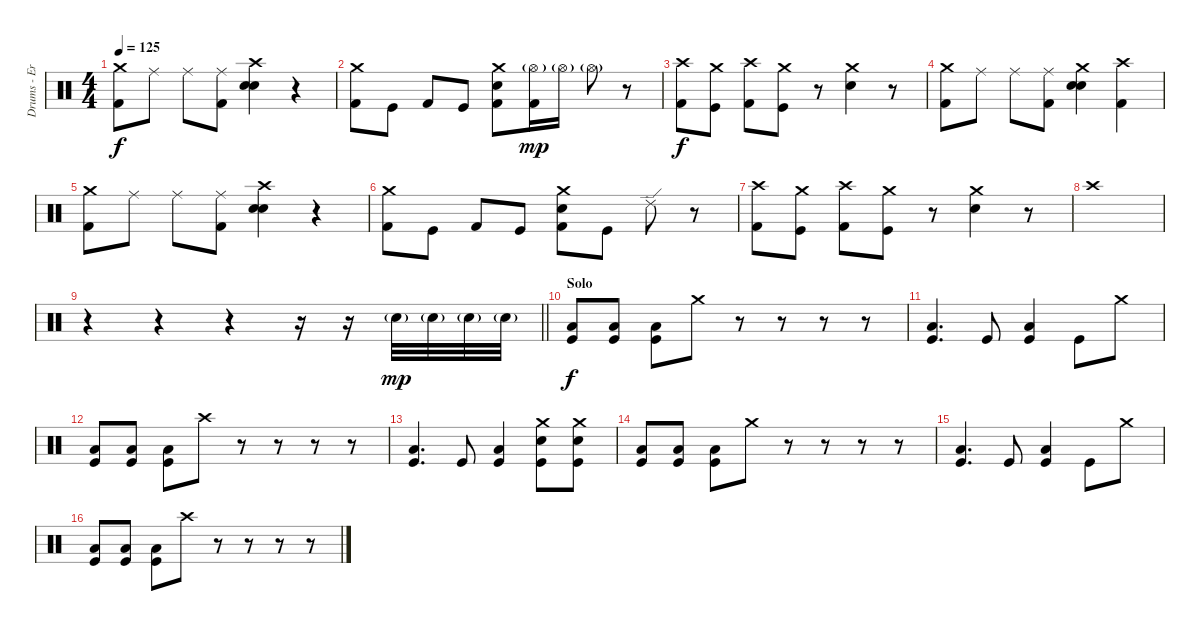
\track ("Drums - Eric Young" "Drums - Er") {instrument percussion}
\staff {score}
\articulation defaults
\ts (4 4)
\tempo 125
\clef neutral
\ks c
("Crash medium (hit)" "Kick (hit) 2").8{dy f} "Ride (middle)".8 "Ride (middle)".8 ("Ride (middle)" "Kick (hit) 2").8 ("Crash high (hit)" "Electric Snare (hit)" "Snare (hit) 2").4 r.4 |
("Crash medium (hit)" "Kick (hit) 2").8 "Kick (hit)".8 "Kick (hit) 2".8 "Kick (hit)".8 ("Crash medium (hit)" "Electric Snare (hit)" "Kick (hit) 2").8 ("Hi-Hat (open)"{g} "Kick (hit) 2").16{dy mp} "Hi-Hat (open)"{g}.16 "Hi-Hat (open)"{g}.8 r.8 |
("Crash high (hit)" "Kick (hit) 2").8{dy f} ("Crash medium (hit)" "Kick (hit)").8 ("Crash high (hit)" "Kick (hit) 2").8 ("Crash medium (hit)" "Kick (hit)").8 r.8 ("Crash medium (hit)" "Electric Snare (hit)").4 r.8 |
("Crash medium (hit)" "Kick (hit) 2").8 "Ride (middle)".8 "Ride (middle)".8 ("Ride (middle)" "Kick (hit) 2").8 ("Crash medium (hit)" "Snare (hit) 2" "Electric Snare (hit)").4 ("Crash high (hit)" "Kick (hit) 2").4 |
("Crash medium (hit)" "Kick (hit) 2").8 "Ride (middle)".8 "Ride (middle)".8 ("Ride (middle)" "Kick (hit) 2").8 ("Crash high (hit)" "Electric Snare (hit)" "Snare (hit) 2").4 r.4 |
("Crash medium (hit)" "Kick (hit) 2").8 "Kick (hit)".8 "Kick (hit) 2".8 "Kick (hit)".8 ("Crash medium (hit)" "Electric Snare (hit)" "Kick (hit) 2").8 "Kick (hit)".8 "Ride (edge) 2".8 r.8 |
("Crash high (hit)" "Kick (hit) 2").8 ("Crash medium (hit)" "Kick (hit)").8 ("Crash high (hit)" "Kick (hit) 2").8 ("Crash medium (hit)" "Kick (hit)").8 r.8 ("Crash medium (hit)" "Electric Snare (hit)").4 r.8 |
"Crash high (hit)".1 |
\barLineRight lightlight
r.4 r.4 r.4 r.16 r.16 "Electric Snare (hit)"{g}.32{dy mp} "Snare (hit) 2"{g}.32 "Electric Snare (hit)"{g}.32 "Snare (hit) 2"{g}.32 |
\section ("" "Solo")
("Low Tom (hit)" "Kick (hit)").8{dy f} ("Low Tom (hit)" "Kick (hit)").8 ("Low Tom (hit)" "Kick (hit)").8 "Crash medium (hit)".8 r.8 r.8 r.8 r.8 |
("Low Tom (hit)" "Kick (hit)").4{d} "Kick (hit)".8 ("Low Tom (hit)" "Kick (hit)").4 "Kick (hit)".8 "Crash medium (hit)".8 |
("Low Tom (hit)" "Kick (hit)").8 ("Low Tom (hit)" "Kick (hit)").8 ("Low Tom (hit)" "Kick (hit)").8 "Crash high (hit)".8 r.8 r.8 r.8 r.8 |
("Low Tom (hit)" "Kick (hit)").4{d} "Kick (hit)".8 ("Low Tom (hit)" "Kick (hit)").4 ("Crash medium (hit)" "Electric Snare (hit)" "Kick (hit)").8 ("Crash medium (hit)" "Electric Snare (hit)" "Kick (hit)").8 |
("Low Tom (hit)" "Kick (hit)").8 ("Low Tom (hit)" "Kick (hit)").8 ("Low Tom (hit)" "Kick (hit)").8 "Crash medium (hit)".8 r.8 r.8 r.8 r.8 |
("Low Tom (hit)" "Kick (hit)").4{d} "Kick (hit)".8 ("Low Tom (hit)" "Kick (hit)").4 "Kick (hit)".8 "Crash medium (hit)".8 |
("Low Tom (hit)" "Kick (hit)").8 ("Low Tom (hit)" "Kick (hit)").8 ("Low Tom (hit)" "Kick (hit)").8 "Crash high (hit)".8 r.8 r.8 r.8 r.8
